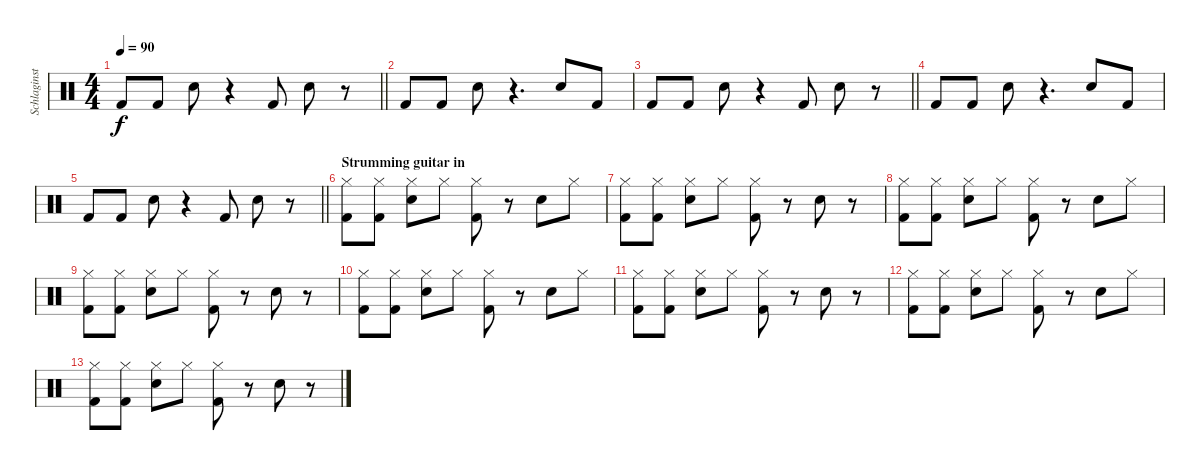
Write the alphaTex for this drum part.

\track ("Schlaginstrumente - Auswahl" "Schlaginst") {instrument percussion}
\staff {score}
\articulation defaults
\ts (4 4)
\tempo 90
\clef neutral
\barLineRight lightlight
\ks c "Kick (hit) 2".8{dy f} "Kick (hit) 2".8 "Snare (hit) 2".8
r.4 "Kick (hit) 2".8 "Snare (hit) 2".8 r.8 |
"Kick (hit) 2".8 "Kick (hit) 2".8 "Snare (hit) 2".8 r.4{d} "Snare (hit) 2".8 "Kick (hit) 2".8 |
\barLineRight lightlight "Kick (hit) 2".8 "Kick (hit) 2".8 "Snare (hit) 2".8
r.4 "Kick (hit) 2".8 "Snare (hit) 2".8 r.8 |
"Kick (hit) 2".8 "Kick (hit) 2".8 "Snare (hit) 2".8 r.4{d} "Snare (hit) 2".8 "Kick (hit) 2".8 |
\barLineRight lightlight "Kick (hit) 2".8 "Kick (hit) 2".8 "Snare (hit) 2".8
r.4 "Kick (hit) 2".8 "Snare (hit) 2".8 r.8 |
\section ("" "Strumming guitar in")
("Kick (hit) 2" "Hi-Hat (closed)").8 ("Kick (hit) 2" "Hi-Hat (closed)").8 ("Snare (hit) 2" "Hi-Hat (closed)").8 "Hi-Hat (closed)".8 ("Kick (hit) 2" "Hi-Hat (closed)").8 r.8 "Snare (hit) 2".8 "Hi-Hat (closed)".8 |
("Kick (hit) 2" "Hi-Hat (closed)").8 ("Kick (hit) 2" "Hi-Hat (closed)").8 ("Snare (hit) 2" "Hi-Hat (closed)").8 "Hi-Hat (closed)".8 ("Kick (hit) 2" "Hi-Hat (closed)").8 r.8 "Snare (hit) 2".8 r.8 |
("Kick (hit) 2" "Hi-Hat (closed)").8 ("Kick (hit) 2" "Hi-Hat (closed)").8 ("Snare (hit) 2" "Hi-Hat (closed)").8 "Hi-Hat (closed)".8 ("Kick (hit) 2" "Hi-Hat (closed)").8 r.8 "Snare (hit) 2".8 "Hi-Hat (closed)".8 |
("Kick (hit) 2" "Hi-Hat (closed)").8 ("Kick (hit) 2" "Hi-Hat (closed)").8 ("Snare (hit) 2" "Hi-Hat (closed)").8 "Hi-Hat (closed)".8 ("Kick (hit) 2" "Hi-Hat (closed)").8 r.8 "Snare (hit) 2".8 r.8 |
("Kick (hit) 2" "Hi-Hat (closed)").8 ("Kick (hit) 2" "Hi-Hat (closed)").8 ("Snare (hit) 2" "Hi-Hat (closed)").8 "Hi-Hat (closed)".8 ("Kick (hit) 2" "Hi-Hat (closed)").8 r.8 "Snare (hit) 2".8 "Hi-Hat (closed)".8 |
("Kick (hit) 2" "Hi-Hat (closed)").8 ("Kick (hit) 2" "Hi-Hat (closed)").8 ("Snare (hit) 2" "Hi-Hat (closed)").8 "Hi-Hat (closed)".8 ("Kick (hit) 2" "Hi-Hat (closed)").8 r.8 "Snare (hit) 2".8 r.8 |
("Kick (hit) 2" "Hi-Hat (closed)").8 ("Kick (hit) 2" "Hi-Hat (closed)").8 ("Snare (hit) 2" "Hi-Hat (closed)").8 "Hi-Hat (closed)".8 ("Kick (hit) 2" "Hi-Hat (closed)").8 r.8 "Snare (hit) 2".8 "Hi-Hat (closed)".8 |
("Kick (hit) 2" "Hi-Hat (closed)").8 ("Kick (hit) 2" "Hi-Hat (closed)").8 ("Snare (hit) 2" "Hi-Hat (closed)").8 "Hi-Hat (closed)".8 ("Kick (hit) 2" "Hi-Hat (closed)").8 r.8 "Snare (hit) 2".8 r.8
